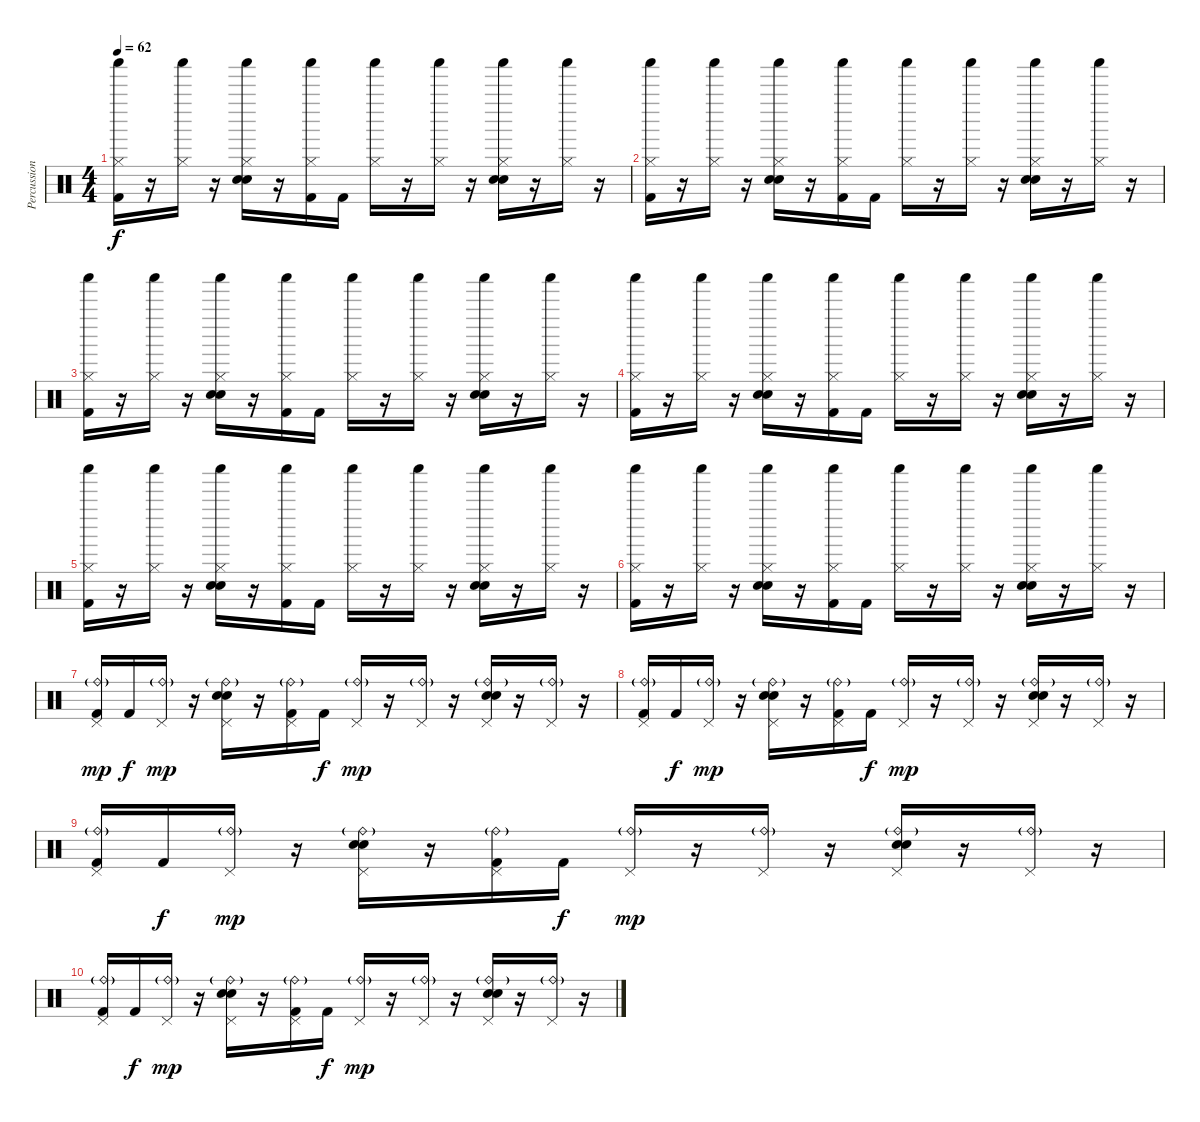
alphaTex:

\track ("Percussion" "Percussion") {instrument percussion}
\staff {score}
\articulation defaults
\ts (4 4)
\tempo 62
\clef neutral
\ks c
("Shaker (hit)" "Hi-Hat (closed)" "Kick (hit) 2").16{dy f} r.16 ("Shaker (hit)" "Hi-Hat (closed)").16 r.16 ("Shaker (hit)" "Hi-Hat (closed)" "Electric Snare (hit)" "Snare (hit) 2").16 r.16 ("Shaker (hit)" "Hi-Hat (closed)" "Kick (hit) 2").16 "Kick (hit) 2".16 ("Shaker (hit)" "Hi-Hat (closed)").16 r.16 ("Shaker (hit)" "Hi-Hat (closed)").16 r.16 ("Shaker (hit)" "Hi-Hat (closed)" "Electric Snare (hit)" "Snare (hit) 2").16 r.16 ("Shaker (hit)" "Hi-Hat (closed)").16 r.16 |
("Shaker (hit)" "Hi-Hat (closed)" "Kick (hit) 2").16 r.16 ("Shaker (hit)" "Hi-Hat (closed)").16 r.16 ("Shaker (hit)" "Hi-Hat (closed)" "Electric Snare (hit)" "Snare (hit) 2").16 r.16 ("Shaker (hit)" "Hi-Hat (closed)" "Kick (hit) 2").16 "Kick (hit) 2".16 ("Shaker (hit)" "Hi-Hat (closed)").16 r.16 ("Shaker (hit)" "Hi-Hat (closed)").16 r.16 ("Shaker (hit)" "Hi-Hat (closed)" "Electric Snare (hit)" "Snare (hit) 2").16 r.16 ("Shaker (hit)" "Hi-Hat (closed)").16 r.16 |
("Shaker (hit)" "Hi-Hat (closed)" "Kick (hit) 2").16 r.16 ("Shaker (hit)" "Hi-Hat (closed)").16 r.16 ("Shaker (hit)" "Hi-Hat (closed)" "Electric Snare (hit)" "Snare (hit) 2").16 r.16 ("Shaker (hit)" "Hi-Hat (closed)" "Kick (hit) 2").16 "Kick (hit) 2".16 ("Shaker (hit)" "Hi-Hat (closed)").16 r.16 ("Shaker (hit)" "Hi-Hat (closed)").16 r.16 ("Shaker (hit)" "Hi-Hat (closed)" "Electric Snare (hit)" "Snare (hit) 2").16 r.16 ("Shaker (hit)" "Hi-Hat (closed)").16 r.16 |
("Shaker (hit)" "Hi-Hat (closed)" "Kick (hit) 2").16 r.16 ("Shaker (hit)" "Hi-Hat (closed)").16 r.16 ("Shaker (hit)" "Hi-Hat (closed)" "Electric Snare (hit)" "Snare (hit) 2").16 r.16 ("Shaker (hit)" "Hi-Hat (closed)" "Kick (hit) 2").16 "Kick (hit) 2".16 ("Shaker (hit)" "Hi-Hat (closed)").16 r.16 ("Shaker (hit)" "Hi-Hat (closed)").16 r.16 ("Shaker (hit)" "Hi-Hat (closed)" "Electric Snare (hit)" "Snare (hit) 2").16 r.16 ("Shaker (hit)" "Hi-Hat (closed)").16 r.16 |
("Shaker (hit)" "Hi-Hat (closed)" "Kick (hit) 2").16 r.16 ("Shaker (hit)" "Hi-Hat (closed)").16 r.16 ("Shaker (hit)" "Hi-Hat (closed)" "Electric Snare (hit)" "Snare (hit) 2").16 r.16 ("Shaker (hit)" "Hi-Hat (closed)" "Kick (hit) 2").16 "Kick (hit) 2".16 ("Shaker (hit)" "Hi-Hat (closed)").16 r.16 ("Shaker (hit)" "Hi-Hat (closed)").16 r.16 ("Shaker (hit)" "Hi-Hat (closed)" "Electric Snare (hit)" "Snare (hit) 2").16 r.16 ("Shaker (hit)" "Hi-Hat (closed)").16 r.16 |
("Shaker (hit)" "Hi-Hat (closed)" "Kick (hit) 2").16 r.16 ("Shaker (hit)" "Hi-Hat (closed)").16 r.16 ("Shaker (hit)" "Hi-Hat (closed)" "Electric Snare (hit)" "Snare (hit) 2").16 r.16 ("Shaker (hit)" "Hi-Hat (closed)" "Kick (hit) 2").16 "Kick (hit) 2".16 ("Shaker (hit)" "Hi-Hat (closed)").16 r.16 ("Shaker (hit)" "Hi-Hat (closed)").16 r.16 ("Shaker (hit)" "Hi-Hat (closed)" "Electric Snare (hit)" "Snare (hit) 2").16 r.16 ("Shaker (hit)" "Hi-Hat (closed)").16 r.16 |
("Pedal Hi-Hat (hit)" "Ride (bell)"{g} "Kick (hit) 2").16{dy mp} "Kick (hit) 2".16{dy f} ("Pedal Hi-Hat (hit)" "Ride (bell)"{g}).16{dy mp} r.16 ("Pedal Hi-Hat (hit)" "Ride (bell)"{g} "Electric Snare (hit)" "Snare (hit) 2").16 r.16 ("Pedal Hi-Hat (hit)" "Ride (bell)"{g} "Kick (hit) 2").16 "Kick (hit) 2".16{dy f} ("Pedal Hi-Hat (hit)" "Ride (bell)"{g}).16{dy mp} r.16 ("Pedal Hi-Hat (hit)" "Ride (bell)"{g}).16 r.16 ("Pedal Hi-Hat (hit)" "Ride (bell)"{g} "Electric Snare (hit)" "Snare (hit) 2").16 r.16 ("Pedal Hi-Hat (hit)" "Ride (bell)"{g}).16 r.16 |
("Pedal Hi-Hat (hit)" "Ride (bell)"{g} "Kick (hit) 2").16 "Kick (hit) 2".16{dy f} ("Pedal Hi-Hat (hit)" "Ride (bell)"{g}).16{dy mp} r.16 ("Pedal Hi-Hat (hit)" "Ride (bell)"{g} "Electric Snare (hit)" "Snare (hit) 2").16 r.16 ("Pedal Hi-Hat (hit)" "Ride (bell)"{g} "Kick (hit) 2").16 "Kick (hit) 2".16{dy f} ("Pedal Hi-Hat (hit)" "Ride (bell)"{g}).16{dy mp} r.16 ("Pedal Hi-Hat (hit)" "Ride (bell)"{g}).16 r.16 ("Pedal Hi-Hat (hit)" "Ride (bell)"{g} "Electric Snare (hit)" "Snare (hit) 2").16 r.16 ("Pedal Hi-Hat (hit)" "Ride (bell)"{g}).16 r.16 |
("Pedal Hi-Hat (hit)" "Ride (bell)"{g} "Kick (hit) 2").16 "Kick (hit) 2".16{dy f} ("Pedal Hi-Hat (hit)" "Ride (bell)"{g}).16{dy mp} r.16 ("Pedal Hi-Hat (hit)" "Ride (bell)"{g} "Electric Snare (hit)" "Snare (hit) 2").16 r.16 ("Pedal Hi-Hat (hit)" "Ride (bell)"{g} "Kick (hit) 2").16 "Kick (hit) 2".16{dy f} ("Pedal Hi-Hat (hit)" "Ride (bell)"{g}).16{dy mp} r.16 ("Pedal Hi-Hat (hit)" "Ride (bell)"{g}).16 r.16 ("Pedal Hi-Hat (hit)" "Ride (bell)"{g} "Electric Snare (hit)" "Snare (hit) 2").16 r.16 ("Pedal Hi-Hat (hit)" "Ride (bell)"{g}).16 r.16 |
("Pedal Hi-Hat (hit)" "Ride (bell)"{g} "Kick (hit) 2").16 "Kick (hit) 2".16{dy f} ("Pedal Hi-Hat (hit)" "Ride (bell)"{g}).16{dy mp} r.16 ("Pedal Hi-Hat (hit)" "Ride (bell)"{g} "Electric Snare (hit)" "Snare (hit) 2").16 r.16 ("Pedal Hi-Hat (hit)" "Ride (bell)"{g} "Kick (hit) 2").16 "Kick (hit) 2".16{dy f} ("Pedal Hi-Hat (hit)" "Ride (bell)"{g}).16{dy mp} r.16 ("Pedal Hi-Hat (hit)" "Ride (bell)"{g}).16 r.16 ("Pedal Hi-Hat (hit)" "Ride (bell)"{g} "Electric Snare (hit)" "Snare (hit) 2").16 r.16 ("Pedal Hi-Hat (hit)" "Ride (bell)"{g}).16 r.16
